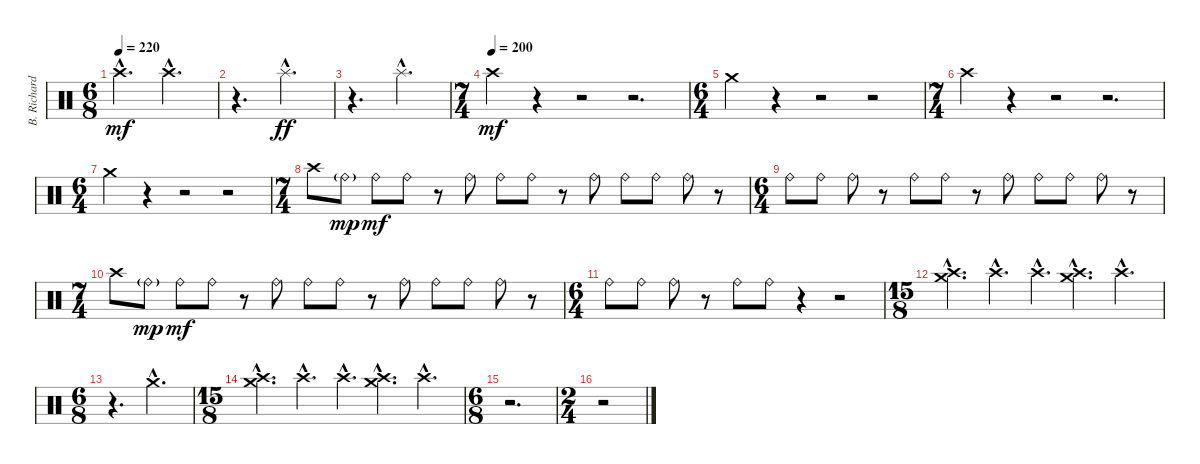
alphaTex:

\track ("B. Richardson Drums" "B. Richard") {instrument percussion}
\staff {score}
\articulation defaults
\ts (6 8)
\tempo 220
\clef neutral
\ks c "Crash high (hit)"{hac}.4{d dy mf} "Crash high (hit)"{hac}.4{d}
|
r.4{d} "Splash (hit)"{hac}.4{d dy ff} |
r.4{d} "Splash (hit)"{hac}.4{d} |
\ts (7 4)
\tempo (200)
"Crash high (hit)".4{dy mf} r.4 r.2 r.2{d} |
\ts (6 4)
"Crash medium (hit)".4 r.4 r.2 r.2 |
\ts (7 4)
"Crash high (hit)".4 r.4 r.2 r.2{d} |
\ts (6 4)
"Crash medium (hit)".4 r.4 r.2 r.2 |
\ts (7 4)
"Crash high (hit)".8 "Ride (bell)"{g}.8{dy mp} "Ride (bell)".8{dy mf} "Ride (bell)".8 r.8 "Ride (bell)".8 "Ride (bell)".8 "Ride (bell)".8 r.8 "Ride (bell)".8 "Ride (bell)".8 "Ride (bell)".8 "Ride (bell)".8 r.8 |
\ts (6 4)
"Ride (bell)".8 "Ride (bell)".8 "Ride (bell)".8 r.8 "Ride (bell)".8 "Ride (bell)".8 r.8 "Ride (bell)".8 "Ride (bell)".8 "Ride (bell)".8 "Ride (bell)".8 r.8 |
\ts (7 4)
"Crash high (hit)".8 "Ride (bell)"{g}.8{dy mp} "Ride (bell)".8{dy mf} "Ride (bell)".8 r.8 "Ride (bell)".8 "Ride (bell)".8 "Ride (bell)".8 r.8 "Ride (bell)".8 "Ride (bell)".8 "Ride (bell)".8 "Ride (bell)".8 r.8 |
\ts (6 4)
"Ride (bell)".8 "Ride (bell)".8 "Ride (bell)".8 r.8 "Ride (bell)".8 "Ride (bell)".8 r.4 r.2 |
\ts (15 8)
("Crash high (hit)"{hac} "Crash medium (hit)"{hac}).4{d} "Crash high (hit)"{hac}.4{d} "Crash high (hit)"{hac}.4{d} ("Crash high (hit)"{hac} "Crash medium (hit)"{hac}).4{d} "Crash high (hit)"{hac}.4{d} |
\ts (6 8)
r.4{d} "Crash medium (hit)"{hac}.4{d} |
\ts (15 8)
("Crash high (hit)"{hac} "Crash medium (hit)"{hac}).4{d} "Crash high (hit)"{hac}.4{d} "Crash high (hit)"{hac}.4{d} ("Crash high (hit)"{hac} "Crash medium (hit)"{hac}).4{d} "Crash high (hit)"{hac}.4{d} |
\ts (6 8)
r.2{d} |
\ts (2 4)
r.2
